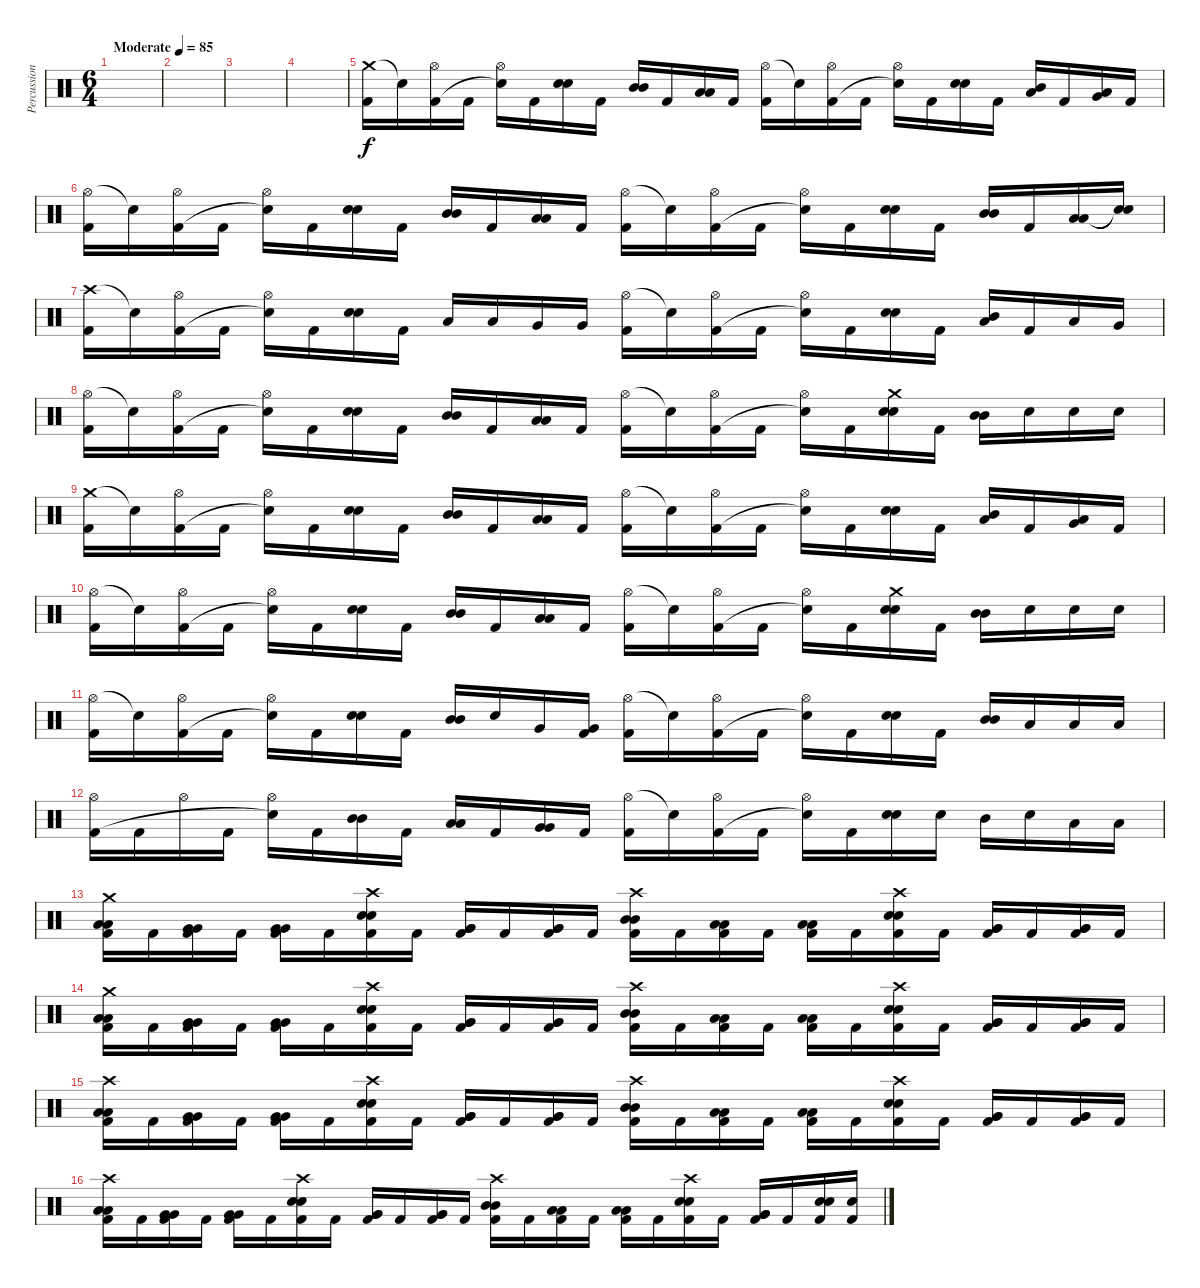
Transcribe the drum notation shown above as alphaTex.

\track ("Percussion" "Percussion") {instrument percussion}
\staff {score}
\articulation defaults
\ts (6 4)
\tempo (85 "Moderate")
\clef neutral
\ks c
|
|
|
|
("Crash medium (hit)" "Kick (hit) 2").16 "Snare (hit)"{t}.16 ("Hi-Hat (open)" "Kick (hit) 2").16 "Kick (hit) 2".16 ("Hi-Hat (open)" "Snare (hit)"{t}).16 "Kick (hit) 2".16 ("Snare (hit) 2" "Snare (hit) 2").16{bd 60} "Kick (hit) 2".16 ("Mid Tom (hit)" "Mid Tom (hit)").16{bd 60} "Kick (hit) 2".16 ("Low Tom (hit)" "Low Tom (hit)").16{bd 60} "Kick (hit) 2".16 ("Hi-Hat (open)" "Kick (hit) 2").16 "Snare (hit)"{t}.16 ("Hi-Hat (open)" "Kick (hit) 2").16 "Kick (hit) 2".16 ("Hi-Hat (open)" "Snare (hit)"{t}).16 "Kick (hit) 2".16 ("Snare (hit) 2" "Snare (hit) 2").16{bd 60} "Kick (hit) 2".16 ("Low Tom (hit)" "Mid Tom (hit)").16{bd 60} "Kick (hit) 2".16 ("Very Low Tom (hit)" "Low Tom (hit)").16{bd 60} "Kick (hit) 2".16 |
("Hi-Hat (open)" "Kick (hit) 2").16 "Snare (hit)"{t}.16 ("Hi-Hat (open)" "Kick (hit) 2").16 "Kick (hit) 2".16 ("Hi-Hat (open)" "Snare (hit)"{t}).16 "Kick (hit) 2".16 ("Snare (hit) 2" "Snare (hit) 2").16{bd 60} "Kick (hit) 2".16 ("Mid Tom (hit)" "Mid Tom (hit)").16{bd 60} "Kick (hit) 2".16 ("Low Tom (hit)" "Low Tom (hit)").16{bd 60} "Kick (hit) 2".16 ("Hi-Hat (open)" "Kick (hit) 2").16 "Snare (hit)"{t}.16 ("Hi-Hat (open)" "Kick (hit) 2").16 "Kick (hit) 2".16 ("Hi-Hat (open)" "Snare (hit)"{t}).16 "Kick (hit) 2".16 ("Snare (hit) 2" "Snare (hit) 2").16{bd 60} "Kick (hit) 2".16 ("Mid Tom (hit)" "Mid Tom (hit)").16{bd 60} "Kick (hit) 2".16 ("Low Tom (hit)" "Low Tom (hit)").16{bd 60} ("Snare (hit)"{t} "Snare (hit)"{t}).16 |
("Crash high (hit)" "Kick (hit) 2").16 "Snare (hit)"{t}.16 ("Hi-Hat (open)" "Kick (hit) 2").16 "Kick (hit) 2".16 ("Hi-Hat (open)" "Snare (hit)"{t}).16 "Kick (hit) 2".16 ("Snare (hit) 2" "Snare (hit) 2").16{bd 60} "Kick (hit) 2".16 "Low Tom (hit)".16 "Low Tom (hit)".16 "Very Low Tom (hit)".16 "Very Low Tom (hit)".16 ("Hi-Hat (open)" "Kick (hit) 2").16 "Snare (hit)"{t}.16 ("Hi-Hat (open)" "Kick (hit) 2").16 "Kick (hit) 2".16 ("Hi-Hat (open)" "Snare (hit)"{t}).16 "Kick (hit) 2".16 ("Snare (hit) 2" "Snare (hit) 2").16{bd 60} "Kick (hit) 2".16 ("Low Tom (hit)" "Mid Tom (hit)").16{bd 60} "Kick (hit) 2".16 "Low Tom (hit)".16 "Very Low Tom (hit)".16 |
("Hi-Hat (open)" "Kick (hit) 2").16 "Snare (hit)"{t}.16 ("Hi-Hat (open)" "Kick (hit) 2").16 "Kick (hit) 2".16 ("Hi-Hat (open)" "Snare (hit)"{t}).16 "Kick (hit) 2".16 ("Snare (hit) 2" "Snare (hit) 2").16{bd 60} "Kick (hit) 2".16 ("Mid Tom (hit)" "Mid Tom (hit)").16{bd 60} "Kick (hit) 2".16 ("Low Tom (hit)" "Low Tom (hit)").16{bd 60} "Kick (hit) 2".16 ("Hi-Hat (open)" "Kick (hit) 2").16 "Snare (hit)"{t}.16 ("Hi-Hat (open)" "Kick (hit) 2").16 "Kick (hit) 2".16 ("Hi-Hat (open)" "Snare (hit)"{t}).16 "Kick (hit) 2".16 ("Crash medium (hit)" "Snare (hit) 2" "Snare (hit) 2").16{bu 60} "Kick (hit) 2".16 ("Mid Tom (hit)" "Mid Tom (hit)").16{bd 60} "Snare (hit) 2".16 "Snare (hit) 2".16 "Snare (hit) 2".16 |
("Crash medium (hit)" "Kick (hit) 2").16 "Snare (hit)"{t}.16 ("Hi-Hat (open)" "Kick (hit) 2").16 "Kick (hit) 2".16 ("Hi-Hat (open)" "Snare (hit)"{t}).16 "Kick (hit) 2".16 ("Snare (hit) 2" "Snare (hit) 2").16{bd 60} "Kick (hit) 2".16 ("Mid Tom (hit)" "Mid Tom (hit)").16{bd 60} "Kick (hit) 2".16 ("Low Tom (hit)" "Low Tom (hit)").16{bd 60} "Kick (hit) 2".16 ("Hi-Hat (open)" "Kick (hit) 2").16 "Snare (hit)"{t}.16 ("Hi-Hat (open)" "Kick (hit) 2").16 "Kick (hit) 2".16 ("Hi-Hat (open)" "Snare (hit)"{t}).16 "Kick (hit) 2".16 ("Snare (hit) 2" "Snare (hit) 2").16{bd 60} "Kick (hit) 2".16 ("Low Tom (hit)" "Mid Tom (hit)").16{bd 60} "Kick (hit) 2".16 ("Very Low Tom (hit)" "Low Tom (hit)").16{bd 60} "Kick (hit) 2".16 |
("Hi-Hat (open)" "Kick (hit) 2").16 "Snare (hit)"{t}.16 ("Hi-Hat (open)" "Kick (hit) 2").16 "Kick (hit) 2".16 ("Hi-Hat (open)" "Snare (hit)"{t}).16 "Kick (hit) 2".16 ("Snare (hit) 2" "Snare (hit) 2").16{bd 60} "Kick (hit) 2".16 ("Mid Tom (hit)" "Mid Tom (hit)").16{bd 60} "Kick (hit) 2".16 ("Low Tom (hit)" "Low Tom (hit)").16{bd 60} "Kick (hit) 2".16 ("Hi-Hat (open)" "Kick (hit) 2").16 "Snare (hit)"{t}.16 ("Hi-Hat (open)" "Kick (hit) 2").16 "Kick (hit) 2".16 ("Hi-Hat (open)" "Snare (hit)"{t}).16 "Kick (hit) 2".16 ("Crash medium (hit)" "Snare (hit) 2" "Snare (hit) 2").16{bu 60} "Kick (hit) 2".16 ("Mid Tom (hit)" "Mid Tom (hit)").16{bd 60} "Snare (hit) 2".16 "Snare (hit) 2".16 "Snare (hit) 2".16 |
("Hi-Hat (open)" "Kick (hit) 2").16 "Snare (hit)"{t}.16 ("Hi-Hat (open)" "Kick (hit) 2").16 "Kick (hit) 2".16 ("Hi-Hat (open)" "Snare (hit)"{t}).16 "Kick (hit) 2".16 ("Snare (hit) 2" "Snare (hit) 2").16{bd 60} "Kick (hit) 2".16 ("Mid Tom (hit)" "Mid Tom (hit)").16{bd 60} "Snare (hit) 2".16 "Very Low Tom (hit)".16 ("Very Low Tom (hit)" "Kick (hit) 2").16 ("Hi-Hat (open)" "Kick (hit) 2").16 "Snare (hit)"{t}.16 ("Hi-Hat (open)" "Kick (hit) 2").16 "Kick (hit) 2".16 ("Hi-Hat (open)" "Snare (hit)"{t}).16 "Kick (hit) 2".16 ("Snare (hit) 2" "Snare (hit) 2").16{bu 60} "Kick (hit) 2".16 ("Mid Tom (hit)" "Mid Tom (hit)").16{bd 60} "Low Tom (hit)".16 "Low Tom (hit)".16 "Low Tom (hit)".16 |
("Hi-Hat (open)" "Kick (hit) 2").16 "Kick (hit) 2".16 "Hi-Hat (open)".16 "Kick (hit) 2".16 ("Hi-Hat (open)" "Snare (hit)"{t}).16 "Kick (hit) 2".16 ("Mid Tom (hit)" "Mid Tom (hit)").16{bd 60} "Kick (hit) 2".16 ("Low Tom (hit)" "Low Tom (hit)").16{bd 60} "Kick (hit) 2".16 ("Very Low Tom (hit)" "Very Low Tom (hit)").16{bd 60} "Kick (hit) 2".16 ("Hi-Hat (open)" "Kick (hit) 2").16 "Snare (hit)"{t}.16 ("Hi-Hat (open)" "Kick (hit) 2").16 "Kick (hit) 2".16 ("Hi-Hat (open)" "Snare (hit)"{t}).16 "Kick (hit) 2".16 ("Snare (hit) 2" "Snare (hit) 2").16{bd 60} "Snare (hit) 2".16 "Mid Tom (hit)".16 "Snare (hit) 2".16 "Low Tom (hit)".16 "Low Tom (hit)".16 |
("Crash medium (hit)" "Low Tom (hit)" "Low Tom (hit)" "Kick (hit) 2").16{bu 60} "Kick (hit) 2".16 ("Very Low Tom (hit)" "Very Low Tom (hit)" "Kick (hit) 2").16{bd 60} "Kick (hit) 2".16 ("Very Low Tom (hit)" "Very Low Tom (hit)" "Kick (hit) 2").16{bd 60} "Kick (hit) 2".16 ("Crash high (hit)" "Snare (hit) 2" "Snare (hit) 2" "Kick (hit) 2").16{bu 60} "Kick (hit) 2".16 ("Very Low Tom (hit)" "Very Low Tom (hit)" "Kick (hit) 2").16{bd 60} "Kick (hit) 2".16 ("Very Low Tom (hit)" "Very Low Tom (hit)" "Kick (hit) 2").16{bd 60} "Kick (hit) 2".16 ("Crash high (hit)" "Mid Tom (hit)" "Mid Tom (hit)" "Kick (hit) 2").16{bu 60} "Kick (hit) 2".16 ("Low Tom (hit)" "Low Tom (hit)" "Kick (hit) 2").16{bd 60} "Kick (hit) 2".16 ("Low Tom (hit)" "Low Tom (hit)" "Kick (hit) 2").16{bd 60} "Kick (hit) 2".16 ("Crash high (hit)" "Snare (hit) 2" "Snare (hit) 2" "Kick (hit) 2").16{bu 60} "Kick (hit) 2".16 ("Very Low Tom (hit)" "Very Low Tom (hit)" "Kick (hit) 2").16{bd 60} "Kick (hit) 2".16 ("Very Low Tom (hit)" "Very Low Tom (hit)" "Kick (hit) 2").16{bd 60} "Kick (hit) 2".16 |
("Crash medium (hit)" "Low Tom (hit)" "Low Tom (hit)" "Kick (hit) 2").16{bu 60} "Kick (hit) 2".16 ("Very Low Tom (hit)" "Very Low Tom (hit)" "Kick (hit) 2").16{bd 60} "Kick (hit) 2".16 ("Very Low Tom (hit)" "Very Low Tom (hit)" "Kick (hit) 2").16{bd 60} "Kick (hit) 2".16 ("Crash high (hit)" "Snare (hit) 2" "Snare (hit) 2" "Kick (hit) 2").16{bu 60} "Kick (hit) 2".16 ("Very Low Tom (hit)" "Very Low Tom (hit)" "Kick (hit) 2").16{bd 60} "Kick (hit) 2".16 ("Very Low Tom (hit)" "Very Low Tom (hit)" "Kick (hit) 2").16{bd 60} "Kick (hit) 2".16 ("Crash high (hit)" "Mid Tom (hit)" "Mid Tom (hit)" "Kick (hit) 2").16{bu 60} "Kick (hit) 2".16 ("Low Tom (hit)" "Low Tom (hit)" "Kick (hit) 2").16{bd 60} "Kick (hit) 2".16 ("Low Tom (hit)" "Low Tom (hit)" "Kick (hit) 2").16{bd 60} "Kick (hit) 2".16 ("Crash high (hit)" "Snare (hit) 2" "Snare (hit) 2" "Kick (hit) 2").16{bu 60} "Kick (hit) 2".16 ("Very Low Tom (hit)" "Very Low Tom (hit)" "Kick (hit) 2").16{bd 60} "Kick (hit) 2".16 ("Very Low Tom (hit)" "Very Low Tom (hit)" "Kick (hit) 2").16{bd 60} "Kick (hit) 2".16 |
("Crash high (hit)" "Low Tom (hit)" "Low Tom (hit)" "Kick (hit) 2").16{bu 60} "Kick (hit) 2".16 ("Very Low Tom (hit)" "Very Low Tom (hit)" "Kick (hit) 2").16{bd 60} "Kick (hit) 2".16 ("Very Low Tom (hit)" "Very Low Tom (hit)" "Kick (hit) 2").16{bd 60} "Kick (hit) 2".16 ("Crash high (hit)" "Snare (hit) 2" "Snare (hit) 2" "Kick (hit) 2").16{bu 60} "Kick (hit) 2".16 ("Very Low Tom (hit)" "Very Low Tom (hit)" "Kick (hit) 2").16{bd 60} "Kick (hit) 2".16 ("Very Low Tom (hit)" "Very Low Tom (hit)" "Kick (hit) 2").16{bd 60} "Kick (hit) 2".16 ("Crash high (hit)" "Mid Tom (hit)" "Mid Tom (hit)" "Kick (hit) 2").16{bu 60} "Kick (hit) 2".16 ("Low Tom (hit)" "Low Tom (hit)" "Kick (hit) 2").16{bd 60} "Kick (hit) 2".16 ("Low Tom (hit)" "Low Tom (hit)" "Kick (hit) 2").16{bd 60} "Kick (hit) 2".16 ("Crash high (hit)" "Snare (hit) 2" "Snare (hit) 2" "Kick (hit) 2").16{bu 60} "Kick (hit) 2".16 ("Very Low Tom (hit)" "Very Low Tom (hit)" "Kick (hit) 2").16{bd 60} "Kick (hit) 2".16 ("Very Low Tom (hit)" "Very Low Tom (hit)" "Kick (hit) 2").16{bd 60} "Kick (hit) 2".16 |
("Crash high (hit)" "Low Tom (hit)" "Low Tom (hit)" "Kick (hit) 2").16{bu 60} "Kick (hit) 2".16 ("Very Low Tom (hit)" "Very Low Tom (hit)" "Kick (hit) 2").16{bd 60} "Kick (hit) 2".16 ("Very Low Tom (hit)" "Very Low Tom (hit)" "Kick (hit) 2").16{bd 60} "Kick (hit) 2".16 ("Crash high (hit)" "Snare (hit) 2" "Snare (hit) 2" "Kick (hit) 2").16{bu 60} "Kick (hit) 2".16 ("Very Low Tom (hit)" "Very Low Tom (hit)" "Kick (hit) 2").16{bd 60} "Kick (hit) 2".16 ("Very Low Tom (hit)" "Very Low Tom (hit)" "Kick (hit) 2").16{bd 60} "Kick (hit) 2".16 ("Crash high (hit)" "Mid Tom (hit)" "Mid Tom (hit)" "Kick (hit) 2").16{bu 60} "Kick (hit) 2".16 ("Low Tom (hit)" "Low Tom (hit)" "Kick (hit) 2").16{bd 60} "Kick (hit) 2".16 ("Low Tom (hit)" "Low Tom (hit)" "Kick (hit) 2").16{bd 60} "Kick (hit) 2".16 ("Crash high (hit)" "Snare (hit) 2" "Snare (hit) 2" "Kick (hit) 2").16{bu 60} "Kick (hit) 2".16 ("Very Low Tom (hit)" "Very Low Tom (hit)" "Kick (hit) 2").16{bd 60} "Kick (hit) 2".16 ("Snare (hit) 2" "Snare (hit) 2" "Kick (hit) 2").16{bd 60} ("Snare (hit) 2" "Kick (hit) 2").16
